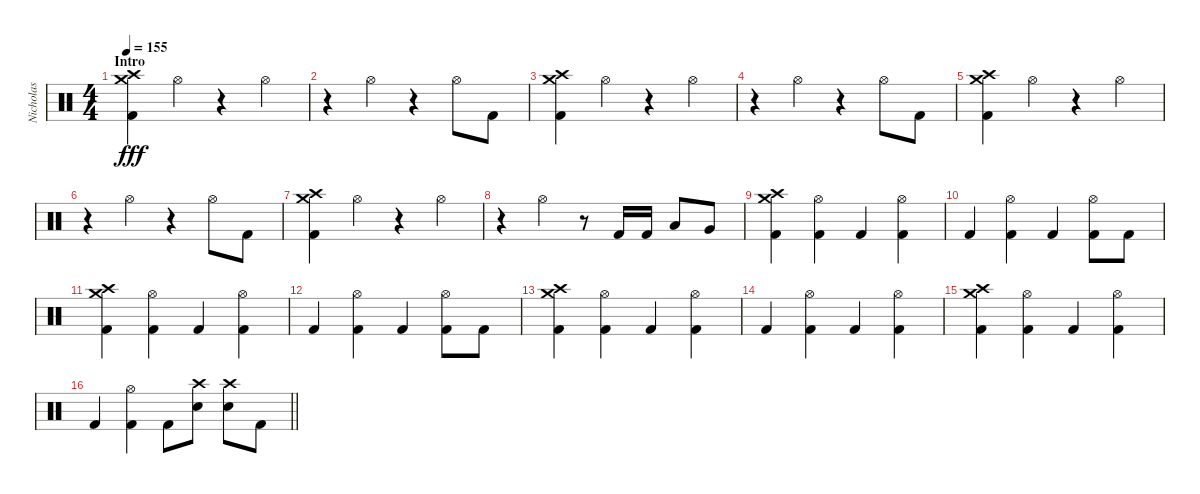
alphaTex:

\track ("Nicholas" "Nicholas") {instrument percussion}
\staff {score}
\articulation defaults
\ts (4 4)
\section ("" "Intro")
\tempo 155
\clef neutral
\ks c
("Crash medium (hit)" "Crash high (hit)" "Kick (hit) 2").4{dy fff} "Hi-Hat (open)".4 r.4 "Hi-Hat (open)".4 |
r.4 "Hi-Hat (open)".4 r.4 "Hi-Hat (open)".8 "Kick (hit) 2".8 |
("Crash medium (hit)" "Crash high (hit)" "Kick (hit) 2").4 "Hi-Hat (open)".4 r.4 "Hi-Hat (open)".4 |
r.4 "Hi-Hat (open)".4 r.4 "Hi-Hat (open)".8 "Kick (hit) 2".8 |
("Crash medium (hit)" "Crash high (hit)" "Kick (hit) 2").4 "Hi-Hat (open)".4 r.4 "Hi-Hat (open)".4 |
r.4 "Hi-Hat (open)".4 r.4 "Hi-Hat (open)".8 "Kick (hit) 2".8 |
("Crash medium (hit)" "Crash high (hit)" "Kick (hit) 2").4 "Hi-Hat (open)".4 r.4 "Hi-Hat (open)".4 |
r.4 "Hi-Hat (open)".4 r.8 "Kick (hit) 2".16 "Kick (hit) 2".16 "Low Tom (hit)".8 "Very Low Tom (hit)".8 |
("Crash medium (hit)" "Crash high (hit)" "Kick (hit) 2").4 ("Hi-Hat (open)" "Kick (hit) 2").4 "Kick (hit) 2".4 ("Hi-Hat (open)" "Kick (hit) 2").4 |
"Kick (hit) 2".4 ("Hi-Hat (open)" "Kick (hit) 2").4 "Kick (hit) 2".4 ("Hi-Hat (open)" "Kick (hit) 2").8 "Kick (hit) 2".8 |
("Crash medium (hit)" "Crash high (hit)" "Kick (hit) 2").4 ("Hi-Hat (open)" "Kick (hit) 2").4 "Kick (hit) 2".4 ("Hi-Hat (open)" "Kick (hit) 2").4 |
"Kick (hit) 2".4 ("Hi-Hat (open)" "Kick (hit) 2").4 "Kick (hit) 2".4 ("Hi-Hat (open)" "Kick (hit) 2").8 "Kick (hit) 2".8 |
("Crash medium (hit)" "Crash high (hit)" "Kick (hit) 2").4 ("Hi-Hat (open)" "Kick (hit) 2").4 "Kick (hit) 2".4 ("Hi-Hat (open)" "Kick (hit) 2").4 |
"Kick (hit) 2".4 ("Hi-Hat (open)" "Kick (hit) 2").4 "Kick (hit) 2".4 ("Hi-Hat (open)" "Kick (hit) 2").4 |
("Crash medium (hit)" "Crash high (hit)" "Kick (hit) 2").4 ("Hi-Hat (open)" "Kick (hit) 2").4 "Kick (hit) 2".4 ("Hi-Hat (open)" "Kick (hit) 2").4 |
\barLineRight lightlight "Kick (hit) 2".4
("Hi-Hat (open)" "Kick (hit) 2").4 "Kick (hit) 2".8 ("Crash high (hit)" "Electric Snare (hit)").8 ("Crash high (hit)" "Electric Snare (hit)").8 "Kick (hit) 2".8
